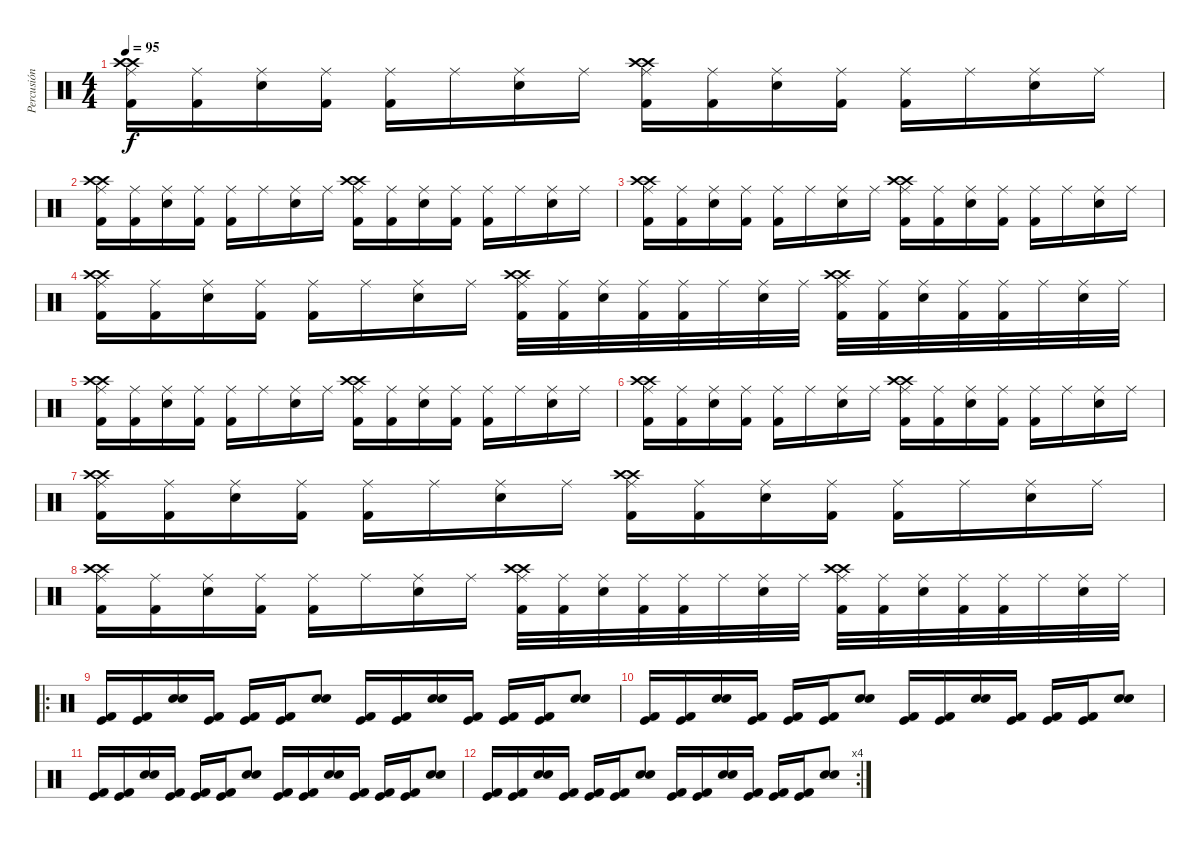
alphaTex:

\track ("Percusión" "Percusión") {instrument percussion}
\staff {score}
\articulation defaults
\ts (4 4)
\tempo 95
\clef neutral
\ks c
("Crash high (hit)" "Crash high (hit)" "Ride (middle)" "Kick (hit) 2").16{dy f} ("Ride (middle)" "Kick (hit) 2").16 ("Ride (middle)" "Snare (hit) 2").16 ("Ride (middle)" "Kick (hit) 2").16 ("Ride (middle)" "Kick (hit) 2").16 "Ride (middle)".16 ("Ride (middle)" "Snare (hit) 2").16 "Ride (middle)".16 ("Crash high (hit)" "Crash high (hit)" "Ride (middle)" "Kick (hit) 2").16 ("Ride (middle)" "Kick (hit) 2").16 ("Ride (middle)" "Snare (hit) 2").16 ("Ride (middle)" "Kick (hit) 2").16 ("Ride (middle)" "Kick (hit) 2").16 "Ride (middle)".16 ("Ride (middle)" "Snare (hit) 2").16 "Ride (middle)".16 |
("Crash high (hit)" "Crash high (hit)" "Ride (middle)" "Kick (hit) 2").16 ("Ride (middle)" "Kick (hit) 2").16 ("Ride (middle)" "Snare (hit) 2").16 ("Ride (middle)" "Kick (hit) 2").16 ("Ride (middle)" "Kick (hit) 2").16 "Ride (middle)".16 ("Ride (middle)" "Snare (hit) 2").16 "Ride (middle)".16 ("Crash high (hit)" "Crash high (hit)" "Ride (middle)" "Kick (hit) 2").16 ("Ride (middle)" "Kick (hit) 2").16 ("Ride (middle)" "Snare (hit) 2").16 ("Ride (middle)" "Kick (hit) 2").16 ("Ride (middle)" "Kick (hit) 2").16 "Ride (middle)".16 ("Ride (middle)" "Snare (hit) 2").16 "Ride (middle)".16 |
("Crash high (hit)" "Crash high (hit)" "Ride (middle)" "Kick (hit) 2").16 ("Ride (middle)" "Kick (hit) 2").16 ("Ride (middle)" "Snare (hit) 2").16 ("Ride (middle)" "Kick (hit) 2").16 ("Ride (middle)" "Kick (hit) 2").16 "Ride (middle)".16 ("Ride (middle)" "Snare (hit) 2").16 "Ride (middle)".16 ("Crash high (hit)" "Crash high (hit)" "Ride (middle)" "Kick (hit) 2").16 ("Ride (middle)" "Kick (hit) 2").16 ("Ride (middle)" "Snare (hit) 2").16 ("Ride (middle)" "Kick (hit) 2").16 ("Ride (middle)" "Kick (hit) 2").16 "Ride (middle)".16 ("Ride (middle)" "Snare (hit) 2").16 "Ride (middle)".16 |
("Crash high (hit)" "Crash high (hit)" "Ride (middle)" "Kick (hit) 2").16 ("Ride (middle)" "Kick (hit) 2").16 ("Ride (middle)" "Snare (hit) 2").16 ("Ride (middle)" "Kick (hit) 2").16 ("Ride (middle)" "Kick (hit) 2").16 "Ride (middle)".16 ("Ride (middle)" "Snare (hit) 2").16 "Ride (middle)".16 ("Crash high (hit)" "Crash high (hit)" "Ride (middle)" "Kick (hit) 2").32 ("Ride (middle)" "Kick (hit) 2").32 ("Ride (middle)" "Snare (hit) 2").32 ("Ride (middle)" "Kick (hit) 2").32 ("Ride (middle)" "Kick (hit) 2").32 "Ride (middle)".32 ("Ride (middle)" "Snare (hit) 2").32 "Ride (middle)".32 ("Crash high (hit)" "Crash high (hit)" "Ride (middle)" "Kick (hit) 2").32 ("Ride (middle)" "Kick (hit) 2").32 ("Ride (middle)" "Snare (hit) 2").32 ("Ride (middle)" "Kick (hit) 2").32 ("Ride (middle)" "Kick (hit) 2").32 "Ride (middle)".32 ("Ride (middle)" "Snare (hit) 2").32 "Ride (middle)".32 |
("Crash high (hit)" "Crash high (hit)" "Ride (middle)" "Kick (hit) 2").16 ("Ride (middle)" "Kick (hit) 2").16 ("Ride (middle)" "Snare (hit) 2").16 ("Ride (middle)" "Kick (hit) 2").16 ("Ride (middle)" "Kick (hit) 2").16 "Ride (middle)".16 ("Ride (middle)" "Snare (hit) 2").16 "Ride (middle)".16 ("Crash high (hit)" "Crash high (hit)" "Ride (middle)" "Kick (hit) 2").16 ("Ride (middle)" "Kick (hit) 2").16 ("Ride (middle)" "Snare (hit) 2").16 ("Ride (middle)" "Kick (hit) 2").16 ("Ride (middle)" "Kick (hit) 2").16 "Ride (middle)".16 ("Ride (middle)" "Snare (hit) 2").16 "Ride (middle)".16 |
("Crash high (hit)" "Crash high (hit)" "Ride (middle)" "Kick (hit) 2").16 ("Ride (middle)" "Kick (hit) 2").16 ("Ride (middle)" "Snare (hit) 2").16 ("Ride (middle)" "Kick (hit) 2").16 ("Ride (middle)" "Kick (hit) 2").16 "Ride (middle)".16 ("Ride (middle)" "Snare (hit) 2").16 "Ride (middle)".16 ("Crash high (hit)" "Crash high (hit)" "Ride (middle)" "Kick (hit) 2").16 ("Ride (middle)" "Kick (hit) 2").16 ("Ride (middle)" "Snare (hit) 2").16 ("Ride (middle)" "Kick (hit) 2").16 ("Ride (middle)" "Kick (hit) 2").16 "Ride (middle)".16 ("Ride (middle)" "Snare (hit) 2").16 "Ride (middle)".16 |
("Crash high (hit)" "Crash high (hit)" "Ride (middle)" "Kick (hit) 2").16 ("Ride (middle)" "Kick (hit) 2").16 ("Ride (middle)" "Snare (hit) 2").16 ("Ride (middle)" "Kick (hit) 2").16 ("Ride (middle)" "Kick (hit) 2").16 "Ride (middle)".16 ("Ride (middle)" "Snare (hit) 2").16 "Ride (middle)".16 ("Crash high (hit)" "Crash high (hit)" "Ride (middle)" "Kick (hit) 2").16 ("Ride (middle)" "Kick (hit) 2").16 ("Ride (middle)" "Snare (hit) 2").16 ("Ride (middle)" "Kick (hit) 2").16 ("Ride (middle)" "Kick (hit) 2").16 "Ride (middle)".16 ("Ride (middle)" "Snare (hit) 2").16 "Ride (middle)".16 |
("Crash high (hit)" "Crash high (hit)" "Ride (middle)" "Kick (hit) 2").16 ("Ride (middle)" "Kick (hit) 2").16 ("Ride (middle)" "Snare (hit) 2").16 ("Ride (middle)" "Kick (hit) 2").16 ("Ride (middle)" "Kick (hit) 2").16 "Ride (middle)".16 ("Ride (middle)" "Snare (hit) 2").16 "Ride (middle)".16 ("Crash high (hit)" "Crash high (hit)" "Ride (middle)" "Kick (hit) 2").32 ("Ride (middle)" "Kick (hit) 2").32 ("Ride (middle)" "Snare (hit) 2").32 ("Ride (middle)" "Kick (hit) 2").32 ("Ride (middle)" "Kick (hit) 2").32 "Ride (middle)".32 ("Ride (middle)" "Snare (hit) 2").32 "Ride (middle)".32 ("Crash high (hit)" "Crash high (hit)" "Ride (middle)" "Kick (hit) 2").32 ("Ride (middle)" "Kick (hit) 2").32 ("Ride (middle)" "Snare (hit) 2").32 ("Ride (middle)" "Kick (hit) 2").32 ("Ride (middle)" "Kick (hit) 2").32 "Ride (middle)".32 ("Ride (middle)" "Snare (hit) 2").32 "Ride (middle)".32 |
\ro
("Kick (hit) 2" "Kick (hit)").16 ("Kick (hit) 2" "Kick (hit)").16 ("Electric Snare (hit)" "Snare (hit) 2").16 ("Kick (hit) 2" "Kick (hit)").16 ("Kick (hit) 2" "Kick (hit)").16 ("Kick (hit) 2" "Kick (hit)").16 ("Electric Snare (hit)" "Snare (hit) 2").8 ("Kick (hit) 2" "Kick (hit)").16 ("Kick (hit) 2" "Kick (hit)").16 ("Electric Snare (hit)" "Snare (hit) 2").16 ("Kick (hit) 2" "Kick (hit)").16 ("Kick (hit) 2" "Kick (hit)").16 ("Kick (hit) 2" "Kick (hit)").16 ("Electric Snare (hit)" "Snare (hit) 2").8 |
("Kick (hit) 2" "Kick (hit)").16 ("Kick (hit) 2" "Kick (hit)").16 ("Electric Snare (hit)" "Snare (hit) 2").16 ("Kick (hit) 2" "Kick (hit)").16 ("Kick (hit) 2" "Kick (hit)").16 ("Kick (hit) 2" "Kick (hit)").16 ("Electric Snare (hit)" "Snare (hit) 2").8 ("Kick (hit) 2" "Kick (hit)").16 ("Kick (hit) 2" "Kick (hit)").16 ("Electric Snare (hit)" "Snare (hit) 2").16 ("Kick (hit) 2" "Kick (hit)").16 ("Kick (hit) 2" "Kick (hit)").16 ("Kick (hit) 2" "Kick (hit)").16 ("Electric Snare (hit)" "Snare (hit) 2").8 |
("Kick (hit) 2" "Kick (hit)").16 ("Kick (hit) 2" "Kick (hit)").16 ("Electric Snare (hit)" "Snare (hit) 2").16 ("Kick (hit) 2" "Kick (hit)").16 ("Kick (hit) 2" "Kick (hit)").16 ("Kick (hit) 2" "Kick (hit)").16 ("Electric Snare (hit)" "Snare (hit) 2").8 ("Kick (hit) 2" "Kick (hit)").16 ("Kick (hit) 2" "Kick (hit)").16 ("Electric Snare (hit)" "Snare (hit) 2").16 ("Kick (hit) 2" "Kick (hit)").16 ("Kick (hit) 2" "Kick (hit)").16 ("Kick (hit) 2" "Kick (hit)").16 ("Electric Snare (hit)" "Snare (hit) 2").8 |
\rc 4
("Kick (hit) 2" "Kick (hit)").16 ("Kick (hit) 2" "Kick (hit)").16 ("Electric Snare (hit)" "Snare (hit) 2").16 ("Kick (hit) 2" "Kick (hit)").16 ("Kick (hit) 2" "Kick (hit)").16 ("Kick (hit) 2" "Kick (hit)").16 ("Electric Snare (hit)" "Snare (hit) 2").8 ("Kick (hit) 2" "Kick (hit)").16 ("Kick (hit) 2" "Kick (hit)").16 ("Electric Snare (hit)" "Snare (hit) 2").16 ("Kick (hit) 2" "Kick (hit)").16 ("Kick (hit) 2" "Kick (hit)").16 ("Kick (hit) 2" "Kick (hit)").16 ("Electric Snare (hit)" "Snare (hit) 2").8
